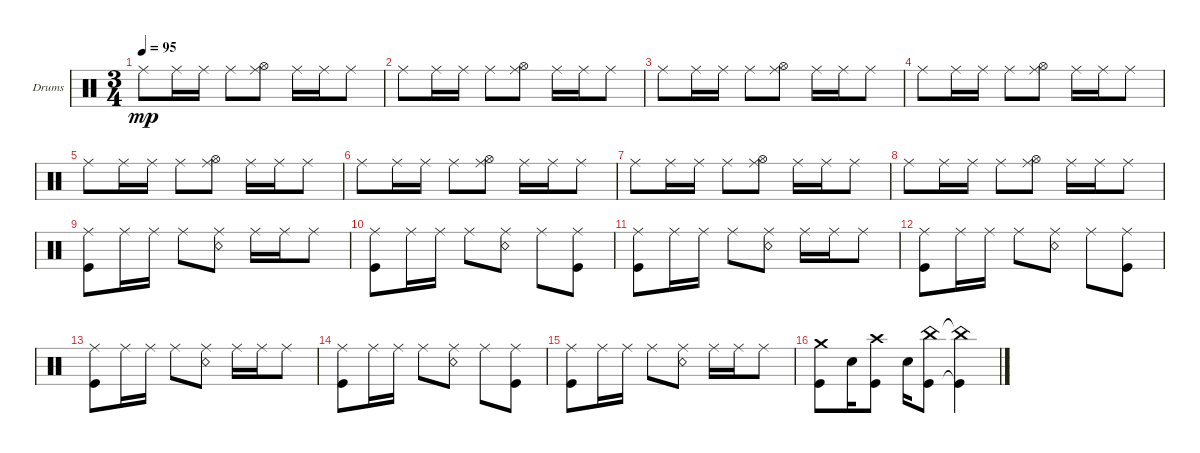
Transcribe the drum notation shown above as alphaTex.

\defaultSystemsLayout 4
\bracketExtendMode groupsimilarinstruments
\firstSystemTrackNameOrientation horizontal
\otherSystemsTrackNameOrientation horizontal
\track ("Drumkit" "Drums") {instrument percussion}
\staff {score}
\articulation defaults
\ts (3 4)
\tempo 95
\clef neutral
\ks c "Ride (middle)".8{dy mp} "Ride (middle)".16 "Ride (middle)".16 "Ride (middle)".8
("Ride (middle)" "Hi-Hat (open)").8 "Ride (middle)".16 "Ride (middle)".16 "Ride (middle)".8 |
"Ride (middle)".8 "Ride (middle)".16 "Ride (middle)".16 "Ride (middle)".8 ("Ride (middle)" "Hi-Hat (open)").8 "Ride (middle)".16 "Ride (middle)".16 "Ride (middle)".8 |
"Ride (middle)".8 "Ride (middle)".16 "Ride (middle)".16 "Ride (middle)".8 ("Ride (middle)" "Hi-Hat (open)").8 "Ride (middle)".16 "Ride (middle)".16 "Ride (middle)".8 |
"Ride (middle)".8 "Ride (middle)".16 "Ride (middle)".16 "Ride (middle)".8 ("Ride (middle)" "Hi-Hat (open)").8 "Ride (middle)".16 "Ride (middle)".16 "Ride (middle)".8 |
"Ride (middle)".8 "Ride (middle)".16 "Ride (middle)".16 "Ride (middle)".8 ("Ride (middle)" "Hi-Hat (open)").8 "Ride (middle)".16 "Ride (middle)".16 "Ride (middle)".8 |
"Ride (middle)".8 "Ride (middle)".16 "Ride (middle)".16 "Ride (middle)".8 ("Ride (middle)" "Hi-Hat (open)").8 "Ride (middle)".16 "Ride (middle)".16 "Ride (middle)".8 |
"Ride (middle)".8 "Ride (middle)".16 "Ride (middle)".16 "Ride (middle)".8 ("Ride (middle)" "Hi-Hat (open)").8 "Ride (middle)".16 "Ride (middle)".16 "Ride (middle)".8 |
"Ride (middle)".8 "Ride (middle)".16 "Ride (middle)".16 "Ride (middle)".8 ("Ride (middle)" "Hi-Hat (open)").8 "Ride (middle)".16 "Ride (middle)".16 "Ride (middle)".8 |
("Ride (middle)" "Kick (hit)").8 "Ride (middle)".16 "Ride (middle)".16 "Ride (middle)".8 ("Ride (middle)" "Snare (rim shot)").8 "Ride (middle)".16 "Ride (middle)".16 "Ride (middle)".8 |
("Ride (middle)" "Kick (hit)").8 "Ride (middle)".16 "Ride (middle)".16 "Ride (middle)".8 ("Ride (middle)" "Snare (rim shot)").8 "Ride (middle)".8 ("Ride (middle)" "Kick (hit)").8 |
("Ride (middle)" "Kick (hit)").8 "Ride (middle)".16 "Ride (middle)".16 "Ride (middle)".8 ("Ride (middle)" "Snare (rim shot)").8 "Ride (middle)".16 "Ride (middle)".16 "Ride (middle)".8 |
("Ride (middle)" "Kick (hit)").8 "Ride (middle)".16 "Ride (middle)".16 "Ride (middle)".8 ("Ride (middle)" "Snare (rim shot)").8 "Ride (middle)".8 ("Ride (middle)" "Kick (hit)").8 |
("Ride (middle)" "Kick (hit)").8 "Ride (middle)".16 "Ride (middle)".16 "Ride (middle)".8 ("Ride (middle)" "Snare (rim shot)").8 "Ride (middle)".16 "Ride (middle)".16 "Ride (middle)".8 |
("Ride (middle)" "Kick (hit)").8 "Ride (middle)".16 "Ride (middle)".16 "Ride (middle)".8 ("Ride (middle)" "Snare (rim shot)").8 "Ride (middle)".8 ("Ride (middle)" "Kick (hit)").8 |
("Ride (middle)" "Kick (hit)").8 "Ride (middle)".16 "Ride (middle)".16 "Ride (middle)".8 ("Ride (middle)" "Snare (rim shot)").8 "Ride (middle)".16 "Ride (middle)".16 "Ride (middle)".8 |
("Crash medium (hit)" "Kick (hit)").8 "Snare (hit) 2".16 ("Kick (hit)" "Crash high (hit)").8 "Snare (hit) 2".16 ("Kick (hit)" "China (hit)").8 ("Kick (hit)"{t} "China (hit)"{t}).4
